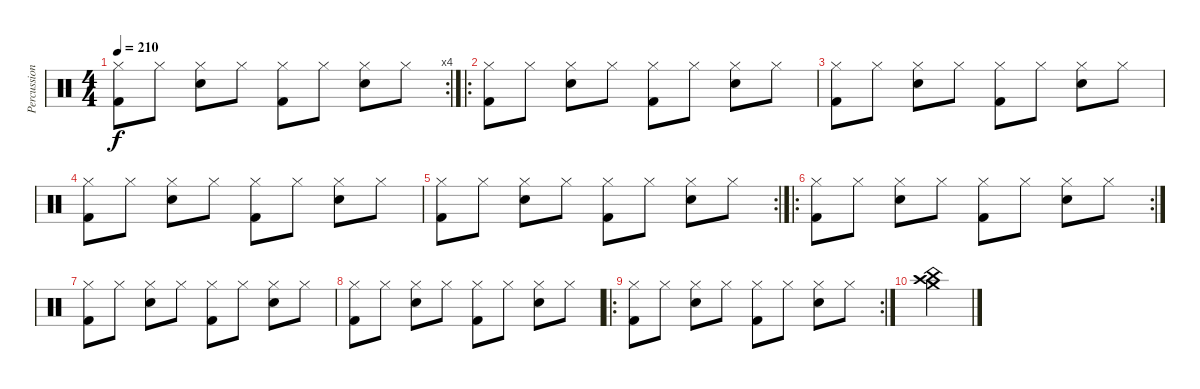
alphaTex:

\track ("Percussion" "Percussion") {instrument percussion}
\staff {score}
\articulation defaults
\rc 4
\ts (4 4)
\tempo 210
\clef neutral
\ks c
("Hi-Hat (closed)" "Kick (hit) 2").8{dy f} "Hi-Hat (closed)".8 ("Hi-Hat (closed)" "Snare (hit) 2").8 "Hi-Hat (closed)".8 ("Hi-Hat (closed)" "Kick (hit) 2").8 "Hi-Hat (closed)".8 ("Hi-Hat (closed)" "Snare (hit) 2").8 "Hi-Hat (closed)".8 |
\ro
("Hi-Hat (closed)" "Kick (hit) 2").8 "Hi-Hat (closed)".8 ("Hi-Hat (closed)" "Snare (hit) 2").8 "Hi-Hat (closed)".8 ("Hi-Hat (closed)" "Kick (hit) 2").8 "Hi-Hat (closed)".8 ("Hi-Hat (closed)" "Snare (hit) 2").8 "Hi-Hat (closed)".8 |
("Hi-Hat (closed)" "Kick (hit) 2").8 "Hi-Hat (closed)".8 ("Hi-Hat (closed)" "Snare (hit) 2").8 "Hi-Hat (closed)".8 ("Hi-Hat (closed)" "Kick (hit) 2").8 "Hi-Hat (closed)".8 ("Hi-Hat (closed)" "Snare (hit) 2").8 "Hi-Hat (closed)".8 |
("Hi-Hat (closed)" "Kick (hit) 2").8 "Hi-Hat (closed)".8 ("Hi-Hat (closed)" "Snare (hit) 2").8 "Hi-Hat (closed)".8 ("Hi-Hat (closed)" "Kick (hit) 2").8 "Hi-Hat (closed)".8 ("Hi-Hat (closed)" "Snare (hit) 2").8 "Hi-Hat (closed)".8 |
\rc 2
("Hi-Hat (closed)" "Kick (hit) 2").8 "Hi-Hat (closed)".8 ("Hi-Hat (closed)" "Snare (hit) 2").8 "Hi-Hat (closed)".8 ("Hi-Hat (closed)" "Kick (hit) 2").8 "Hi-Hat (closed)".8 ("Hi-Hat (closed)" "Snare (hit) 2").8 "Hi-Hat (closed)".8 |
\ro
\rc 2
("Hi-Hat (closed)" "Kick (hit) 2").8 "Hi-Hat (closed)".8 ("Hi-Hat (closed)" "Snare (hit) 2").8 "Hi-Hat (closed)".8 ("Hi-Hat (closed)" "Kick (hit) 2").8 "Hi-Hat (closed)".8 ("Hi-Hat (closed)" "Snare (hit) 2").8 "Hi-Hat (closed)".8 |
("Hi-Hat (closed)" "Kick (hit) 2").8 "Hi-Hat (closed)".8 ("Hi-Hat (closed)" "Snare (hit) 2").8 "Hi-Hat (closed)".8 ("Hi-Hat (closed)" "Kick (hit) 2").8 "Hi-Hat (closed)".8 ("Hi-Hat (closed)" "Snare (hit) 2").8 "Hi-Hat (closed)".8 |
("Hi-Hat (closed)" "Kick (hit) 2").8 "Hi-Hat (closed)".8 ("Hi-Hat (closed)" "Snare (hit) 2").8 "Hi-Hat (closed)".8 ("Hi-Hat (closed)" "Kick (hit) 2").8 "Hi-Hat (closed)".8 ("Hi-Hat (closed)" "Snare (hit) 2").8 "Hi-Hat (closed)".8 |
\ro
\rc 2
("Hi-Hat (closed)" "Kick (hit) 2").8 "Hi-Hat (closed)".8 ("Hi-Hat (closed)" "Snare (hit) 2").8 "Hi-Hat (closed)".8 ("Hi-Hat (closed)" "Kick (hit) 2").8 "Hi-Hat (closed)".8 ("Hi-Hat (closed)" "Snare (hit) 2").8 "Hi-Hat (closed)".8 |
("Crash high (hit)" "China (hit)" "Crash medium (hit)").4
